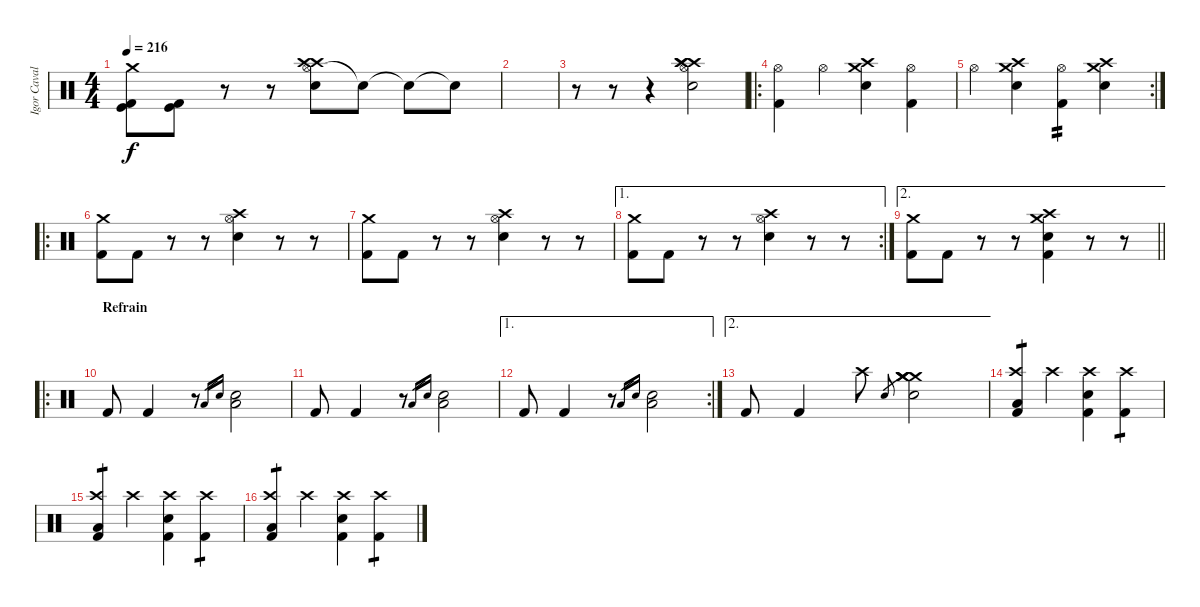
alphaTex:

\track ("Igor Cavalera" "Igor Caval") {instrument percussion}
\staff {score}
\articulation defaults
\ts (4 4)
\tempo 216
\clef neutral
\ks c
("Crash medium (hit)" "Kick (hit) 2" "Kick (hit)").8{dy f} ("Kick (hit) 2" "Kick (hit)").8 r.8 r.8 ("Hi-Hat (open)" "Snare (hit) 2" "Crash high (hit)" "Crash high (hit)").8 "Snare (hit)"{t}.8 "Snare (hit)"{t}.8 "Snare (hit)"{t}.8 |
|
r.8 r.8 r.4 ("Hi-Hat (open)" "Snare (hit) 2" "Crash high (hit)" "Crash high (hit)" "Crash high (hit)").2 |
\ro
("Kick (hit) 2" "Hi-Hat (open)").4 "Hi-Hat (open)".4 ("Snare (hit) 2" "Crash high (hit)" "Crash medium (hit)").4 ("Kick (hit) 2" "Hi-Hat (open)").4 |
\rc 2 "Hi-Hat (open)".4
("Snare (hit) 2" "Crash high (hit)" "Crash medium (hit)").4 ("Kick (hit) 2" "Hi-Hat (open)").4{tp 2} ("Snare (hit) 2" "Crash high (hit)" "Crash medium (hit)").4 |
\ro
("Crash medium (hit)" "Kick (hit) 2").8 "Kick (hit) 2".8 r.8 r.8 ("Hi-Hat (open)" "Snare (hit) 2" "Crash high (hit)").4 r.8 r.8 |
("Crash medium (hit)" "Kick (hit) 2").8 "Kick (hit) 2".8 r.8 r.8 ("Hi-Hat (open)" "Snare (hit) 2" "Crash high (hit)").4 r.8 r.8 |
\ae 1
\rc 2
("Crash medium (hit)" "Kick (hit) 2").8 "Kick (hit) 2".8 r.8 r.8 ("Hi-Hat (open)" "Snare (hit) 2" "Crash high (hit)").4 r.8 r.8 |
\ae 2
\barLineRight lightlight
("Crash medium (hit)" "Kick (hit) 2").8 "Kick (hit) 2".8 r.8 r.8 ("Kick (hit) 2" "Crash medium (hit)" "Crash high (hit)" "Snare (hit) 2").4 r.8 r.8 |
\ro
\section ("" "Refrain")
"Kick (hit) 2".8 "Kick (hit) 2".4 r.8 "Low Floor Tom (hit)".16{gr} "Snare (hit) 2".16{gr} ("Low Floor Tom (hit)" "Snare (hit) 2").2 |
"Kick (hit) 2".8 "Kick (hit) 2".4 r.8 "Low Floor Tom (hit)".16{gr} "Snare (hit) 2".16{gr} ("Low Floor Tom (hit)" "Snare (hit) 2").2 |
\ae 1
\rc 2 "Kick (hit) 2".8 "Kick (hit) 2".4
r.8 "Low Floor Tom (hit)".16{gr} "Snare (hit) 2".16{gr} ("Low Floor Tom (hit)" "Snare (hit) 2").2 |
\ae 2 "Kick (hit) 2".8 "Kick (hit) 2".4 "Crash high (hit)".8 "Snare (hit) 2".8{gr}
("Crash medium (hit)" "Crash medium (hit)" "Crash medium (hit)" "Crash medium (hit)" "Snare (hit) 2").2 |
("Crash high (hit)" "Low Floor Tom (hit)" "Kick (hit) 2").4{tp 1} "Crash high (hit)".4 ("Crash high (hit)" "Kick (hit) 2" "Snare (hit) 2").4 ("Crash high (hit)" "Kick (hit) 2").4{tp 1} |
("Crash high (hit)" "Low Floor Tom (hit)" "Kick (hit) 2").4{tp 1} "Crash high (hit)".4 ("Crash high (hit)" "Kick (hit) 2" "Snare (hit) 2").4 ("Crash high (hit)" "Kick (hit) 2").4{tp 1} |
("Crash high (hit)" "Low Floor Tom (hit)" "Kick (hit) 2").4{tp 1} "Crash high (hit)".4 ("Crash high (hit)" "Kick (hit) 2" "Snare (hit) 2").4 ("Crash high (hit)" "Kick (hit) 2").4{tp 1}
